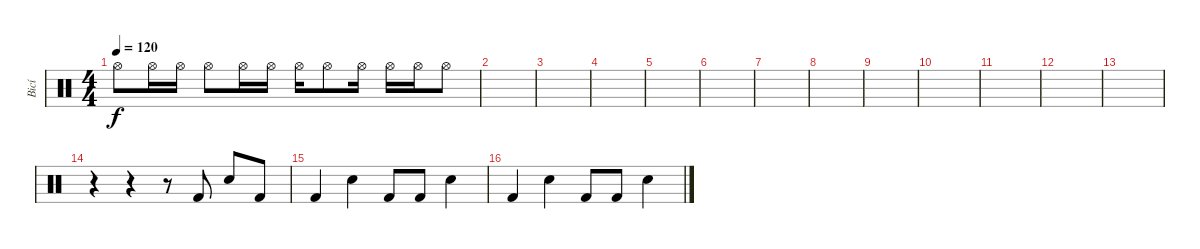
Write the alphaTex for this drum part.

\track ("Bicí" "Bicí") {instrument percussion}
\staff {score}
\articulation defaults
\ts (4 4)
\tempo 120
\clef neutral
\ks c "Hi-Hat (open)".8{dy f} "Hi-Hat (open)".16 "Hi-Hat (open)".16 "Hi-Hat (open)".8 "Hi-Hat (open)".16 "Hi-Hat (open)".16 "Hi-Hat (open)".16 "Hi-Hat (open)".8 "Hi-Hat (open)".16 "Hi-Hat (open)".16 "Hi-Hat (open)".16 "Hi-Hat (open)".8
|
|
|
|
|
|
|
|
|
|
|
|
|
r.4 r.4 r.8 "Kick (hit) 2".8 "Electric Snare (hit)".8 "Kick (hit) 2".8 |
"Kick (hit) 2".4 "Electric Snare (hit)".4 "Kick (hit) 2".8 "Kick (hit) 2".8 "Electric Snare (hit)".4 |
"Kick (hit) 2".4 "Electric Snare (hit)".4 "Kick (hit) 2".8 "Kick (hit) 2".8 "Electric Snare (hit)".4
